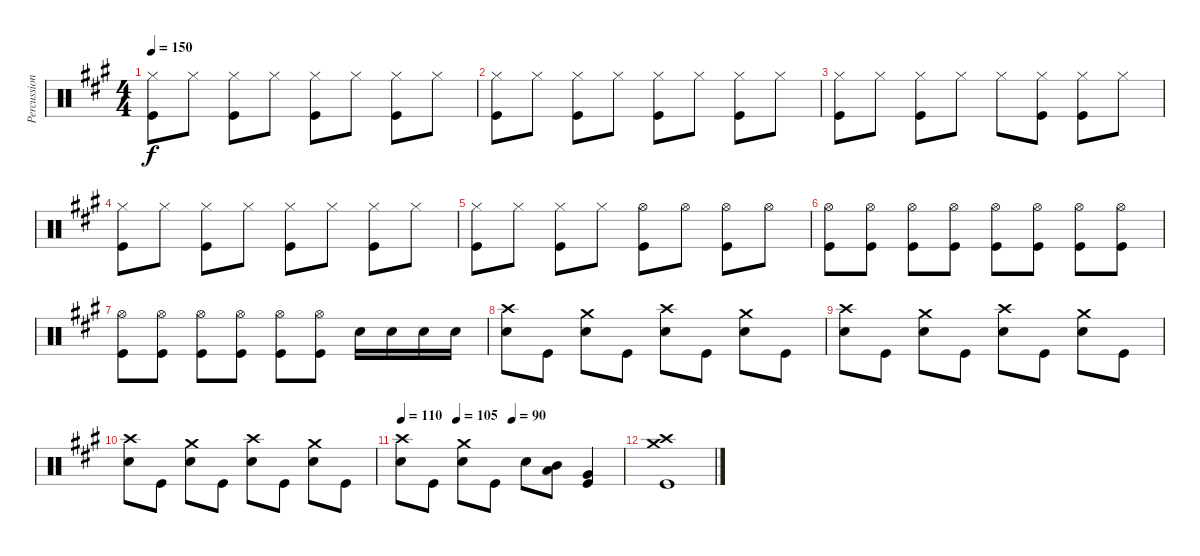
\track ("Percussion" "Percussion") {instrument percussion}
\staff {score}
\articulation defaults
\ts (4 4)
\tempo 150
\clef neutral
\ks a
("Kick (hit)" "Hi-Hat (closed)").8{dy f} "Hi-Hat (closed)".8 ("Kick (hit)" "Hi-Hat (closed)").8 "Hi-Hat (closed)".8 ("Kick (hit)" "Hi-Hat (closed)").8 "Hi-Hat (closed)".8 ("Kick (hit)" "Hi-Hat (closed)").8 "Hi-Hat (closed)".8 |
("Kick (hit)" "Hi-Hat (closed)").8 "Hi-Hat (closed)".8 ("Kick (hit)" "Hi-Hat (closed)").8 "Hi-Hat (closed)".8 ("Kick (hit)" "Hi-Hat (closed)").8 "Hi-Hat (closed)".8 ("Kick (hit)" "Hi-Hat (closed)").8 "Hi-Hat (closed)".8 |
("Kick (hit)" "Hi-Hat (closed)").8 "Hi-Hat (closed)".8 ("Kick (hit)" "Hi-Hat (closed)").8 "Hi-Hat (closed)".8 "Hi-Hat (closed)".8 ("Kick (hit)" "Hi-Hat (closed)").8 ("Kick (hit)" "Hi-Hat (closed)").8 "Hi-Hat (closed)".8 |
("Kick (hit)" "Hi-Hat (closed)").8 "Hi-Hat (closed)".8 ("Kick (hit)" "Hi-Hat (closed)").8 "Hi-Hat (closed)".8 ("Kick (hit)" "Hi-Hat (closed)").8 "Hi-Hat (closed)".8 ("Kick (hit)" "Hi-Hat (closed)").8 "Hi-Hat (closed)".8 |
("Kick (hit)" "Hi-Hat (closed)").8 "Hi-Hat (closed)".8 ("Kick (hit)" "Hi-Hat (closed)").8 "Hi-Hat (closed)".8 ("Kick (hit)" "Hi-Hat (open)").8 "Hi-Hat (open)".8 ("Kick (hit)" "Hi-Hat (open)").8 "Hi-Hat (open)".8 |
("Kick (hit)" "Hi-Hat (open)").8 ("Kick (hit)" "Hi-Hat (open)").8 ("Kick (hit)" "Hi-Hat (open)").8 ("Kick (hit)" "Hi-Hat (open)").8 ("Kick (hit)" "Hi-Hat (open)").8 ("Kick (hit)" "Hi-Hat (open)").8 ("Kick (hit)" "Hi-Hat (open)").8 ("Kick (hit)" "Hi-Hat (open)").8 |
("Kick (hit)" "Hi-Hat (open)").8 ("Kick (hit)" "Hi-Hat (open)").8 ("Kick (hit)" "Hi-Hat (open)").8 ("Kick (hit)" "Hi-Hat (open)").8 ("Kick (hit)" "Hi-Hat (open)").8 ("Kick (hit)" "Hi-Hat (open)").8 "Snare (hit) 2".16 "Snare (hit) 2".16 "Snare (hit) 2".16 "Snare (hit) 2".16 |
("Snare (hit) 2" "Crash high (hit)").8 "Kick (hit)".8 ("Snare (hit) 2" "Crash medium (hit)").8 "Kick (hit)".8 ("Snare (hit) 2" "Crash high (hit)").8 "Kick (hit)".8 ("Snare (hit) 2" "Crash medium (hit)").8 "Kick (hit)".8 |
("Snare (hit) 2" "Crash high (hit)").8 "Kick (hit)".8 ("Snare (hit) 2" "Crash medium (hit)").8 "Kick (hit)".8 ("Snare (hit) 2" "Crash high (hit)").8 "Kick (hit)".8 ("Snare (hit) 2" "Crash medium (hit)").8 "Kick (hit)".8 |
("Snare (hit) 2" "Crash high (hit)").8 "Kick (hit)".8 ("Snare (hit) 2" "Crash medium (hit)").8 "Kick (hit)".8 ("Snare (hit) 2" "Crash high (hit)").8 "Kick (hit)".8 ("Snare (hit) 2" "Crash medium (hit)").8 "Kick (hit)".8 |
\tempo 110
\tempo (105 0.25)
\tempo (90 0.5)
("Snare (hit) 2" "Crash high (hit)").8 "Kick (hit)".8 ("Snare (hit) 2" "Crash medium (hit)").8 "Kick (hit)".8 "Snare (hit) 2".8 ("Mid Tom (hit)" "Low Tom (hit)").8 ("Very Low Tom (hit)" "Kick (hit)").4 |
("Kick (hit)" "Crash high (hit)" "Crash medium (hit)").1
